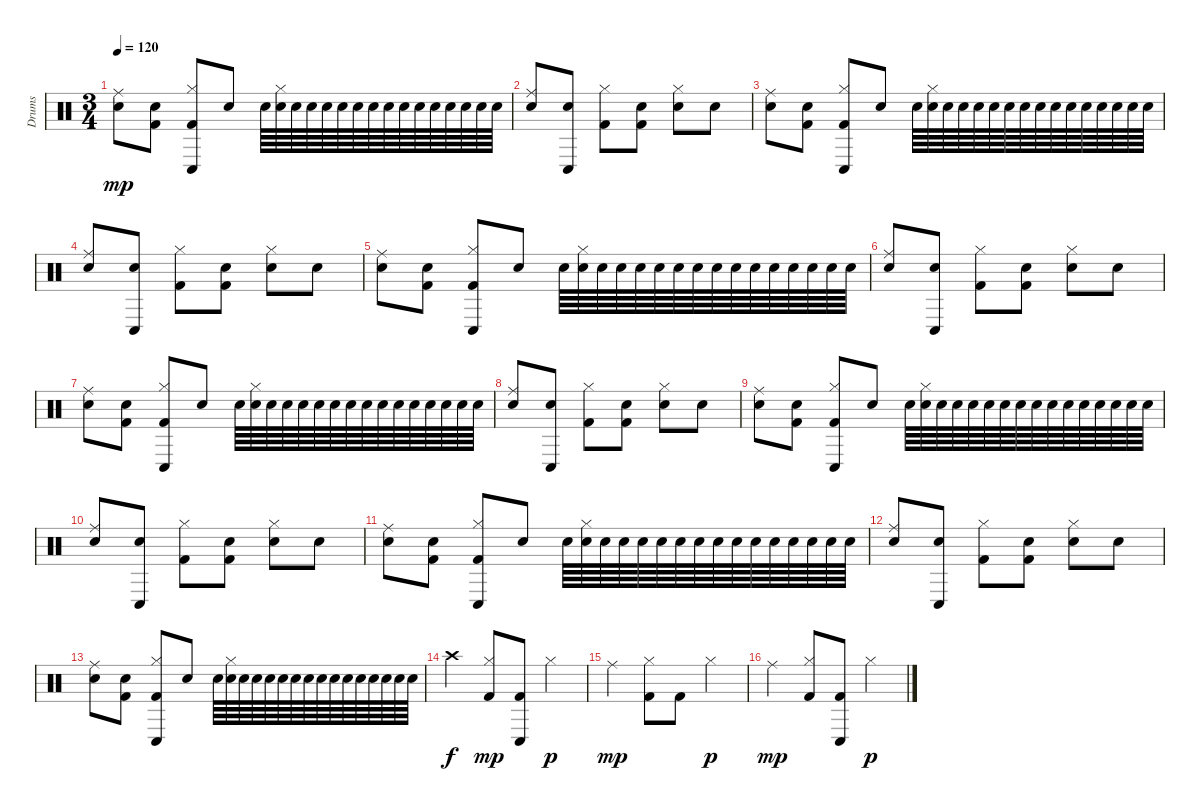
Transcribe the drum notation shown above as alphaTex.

\track ("Drums" "Drums") {instrument percussion}
\staff {score}
\articulation defaults
\ts (3 4)
\tempo 120
\clef neutral
\ks c
("Ride (middle)" "Snare (hit) 2").8{dy mp} ("Snare (hit) 2" "Kick (hit) 2").8 ("Hi-Hat (closed)" "Kick (hit) 2" "Conga low (hit)").8 "Snare (hit) 2".8 "Snare (hit) 2".64 ("Hi-Hat (closed)" "Snare (hit) 2").64 "Snare (hit) 2".64 "Snare (hit) 2".64 "Snare (hit) 2".64 "Snare (hit) 2".64 "Snare (hit) 2".64 "Snare (hit) 2".64 "Snare (hit) 2".64 "Snare (hit) 2".64 "Snare (hit) 2".64 "Snare (hit) 2".64 "Snare (hit) 2".64 "Snare (hit) 2".64 "Snare (hit) 2".64 "Snare (hit) 2".64 |
("Ride (middle)" "Snare (hit) 2").8 ("Snare (hit) 2" "Conga low (hit)").8 ("Hi-Hat (closed)" "Kick (hit) 2").8 ("Snare (hit) 2" "Kick (hit) 2").8 ("Hi-Hat (closed)" "Snare (hit) 2").8 "Snare (hit) 2".8 |
("Ride (middle)" "Snare (hit) 2").8 ("Snare (hit) 2" "Kick (hit) 2").8 ("Hi-Hat (closed)" "Kick (hit) 2" "Conga low (hit)").8 "Snare (hit) 2".8 "Snare (hit) 2".64 ("Hi-Hat (closed)" "Snare (hit) 2").64 "Snare (hit) 2".64 "Snare (hit) 2".64 "Snare (hit) 2".64 "Snare (hit) 2".64 "Snare (hit) 2".64 "Snare (hit) 2".64 "Snare (hit) 2".64 "Snare (hit) 2".64 "Snare (hit) 2".64 "Snare (hit) 2".64 "Snare (hit) 2".64 "Snare (hit) 2".64 "Snare (hit) 2".64 "Snare (hit) 2".64 |
("Ride (middle)" "Snare (hit) 2").8 ("Snare (hit) 2" "Conga low (hit)").8 ("Hi-Hat (closed)" "Kick (hit) 2").8 ("Snare (hit) 2" "Kick (hit) 2").8 ("Hi-Hat (closed)" "Snare (hit) 2").8 "Snare (hit) 2".8 |
("Ride (middle)" "Snare (hit) 2").8 ("Snare (hit) 2" "Kick (hit) 2").8 ("Hi-Hat (closed)" "Kick (hit) 2" "Conga low (hit)").8 "Snare (hit) 2".8 "Snare (hit) 2".64 ("Hi-Hat (closed)" "Snare (hit) 2").64 "Snare (hit) 2".64 "Snare (hit) 2".64 "Snare (hit) 2".64 "Snare (hit) 2".64 "Snare (hit) 2".64 "Snare (hit) 2".64 "Snare (hit) 2".64 "Snare (hit) 2".64 "Snare (hit) 2".64 "Snare (hit) 2".64 "Snare (hit) 2".64 "Snare (hit) 2".64 "Snare (hit) 2".64 "Snare (hit) 2".64 |
("Ride (middle)" "Snare (hit) 2").8 ("Snare (hit) 2" "Conga low (hit)").8 ("Hi-Hat (closed)" "Kick (hit) 2").8 ("Snare (hit) 2" "Kick (hit) 2").8 ("Hi-Hat (closed)" "Snare (hit) 2").8 "Snare (hit) 2".8 |
("Ride (middle)" "Snare (hit) 2").8 ("Snare (hit) 2" "Kick (hit) 2").8 ("Hi-Hat (closed)" "Kick (hit) 2" "Conga low (hit)").8 "Snare (hit) 2".8 "Snare (hit) 2".64 ("Hi-Hat (closed)" "Snare (hit) 2").64 "Snare (hit) 2".64 "Snare (hit) 2".64 "Snare (hit) 2".64 "Snare (hit) 2".64 "Snare (hit) 2".64 "Snare (hit) 2".64 "Snare (hit) 2".64 "Snare (hit) 2".64 "Snare (hit) 2".64 "Snare (hit) 2".64 "Snare (hit) 2".64 "Snare (hit) 2".64 "Snare (hit) 2".64 "Snare (hit) 2".64 |
("Ride (middle)" "Snare (hit) 2").8 ("Snare (hit) 2" "Conga low (hit)").8 ("Hi-Hat (closed)" "Kick (hit) 2").8 ("Snare (hit) 2" "Kick (hit) 2").8 ("Hi-Hat (closed)" "Snare (hit) 2").8 "Snare (hit) 2".8 |
("Ride (middle)" "Snare (hit) 2").8 ("Snare (hit) 2" "Kick (hit) 2").8 ("Hi-Hat (closed)" "Kick (hit) 2" "Conga low (hit)").8 "Snare (hit) 2".8 "Snare (hit) 2".64 ("Hi-Hat (closed)" "Snare (hit) 2").64 "Snare (hit) 2".64 "Snare (hit) 2".64 "Snare (hit) 2".64 "Snare (hit) 2".64 "Snare (hit) 2".64 "Snare (hit) 2".64 "Snare (hit) 2".64 "Snare (hit) 2".64 "Snare (hit) 2".64 "Snare (hit) 2".64 "Snare (hit) 2".64 "Snare (hit) 2".64 "Snare (hit) 2".64 "Snare (hit) 2".64 |
("Ride (middle)" "Snare (hit) 2").8 ("Snare (hit) 2" "Conga low (hit)").8 ("Hi-Hat (closed)" "Kick (hit) 2").8 ("Snare (hit) 2" "Kick (hit) 2").8 ("Hi-Hat (closed)" "Snare (hit) 2").8 "Snare (hit) 2".8 |
("Ride (middle)" "Snare (hit) 2").8 ("Snare (hit) 2" "Kick (hit) 2").8 ("Hi-Hat (closed)" "Kick (hit) 2" "Conga low (hit)").8 "Snare (hit) 2".8 "Snare (hit) 2".64 ("Hi-Hat (closed)" "Snare (hit) 2").64 "Snare (hit) 2".64 "Snare (hit) 2".64 "Snare (hit) 2".64 "Snare (hit) 2".64 "Snare (hit) 2".64 "Snare (hit) 2".64 "Snare (hit) 2".64 "Snare (hit) 2".64 "Snare (hit) 2".64 "Snare (hit) 2".64 "Snare (hit) 2".64 "Snare (hit) 2".64 "Snare (hit) 2".64 "Snare (hit) 2".64 |
("Ride (middle)" "Snare (hit) 2").8 ("Snare (hit) 2" "Conga low (hit)").8 ("Hi-Hat (closed)" "Kick (hit) 2").8 ("Snare (hit) 2" "Kick (hit) 2").8 ("Hi-Hat (closed)" "Snare (hit) 2").8 "Snare (hit) 2".8 |
("Ride (middle)" "Snare (hit) 2").8 ("Snare (hit) 2" "Kick (hit) 2").8 ("Hi-Hat (closed)" "Kick (hit) 2" "Conga low (hit)").8 "Snare (hit) 2".8 "Snare (hit) 2".64 ("Hi-Hat (closed)" "Snare (hit) 2").64 "Snare (hit) 2".64 "Snare (hit) 2".64 "Snare (hit) 2".64 "Snare (hit) 2".64 "Snare (hit) 2".64 "Snare (hit) 2".64 "Snare (hit) 2".64 "Snare (hit) 2".64 "Snare (hit) 2".64 "Snare (hit) 2".64 "Snare (hit) 2".64 "Snare (hit) 2".64 "Snare (hit) 2".64 "Snare (hit) 2".64 |
"Crash high (hit)".4{dy f} ("Hi-Hat (closed)" "Kick (hit) 2").8{dy mp} ("Kick (hit) 2" "Conga low (hit)").8 "Hi-Hat (closed)".4{dy p} |
"Ride (middle)".4{dy mp} ("Hi-Hat (closed)" "Kick (hit) 2").8 "Kick (hit) 2".8 "Hi-Hat (closed)".4{dy p} |
"Ride (middle)".4{dy mp} ("Hi-Hat (closed)" "Kick (hit) 2").8 ("Kick (hit) 2" "Conga low (hit)").8 "Hi-Hat (closed)".4{dy p}
